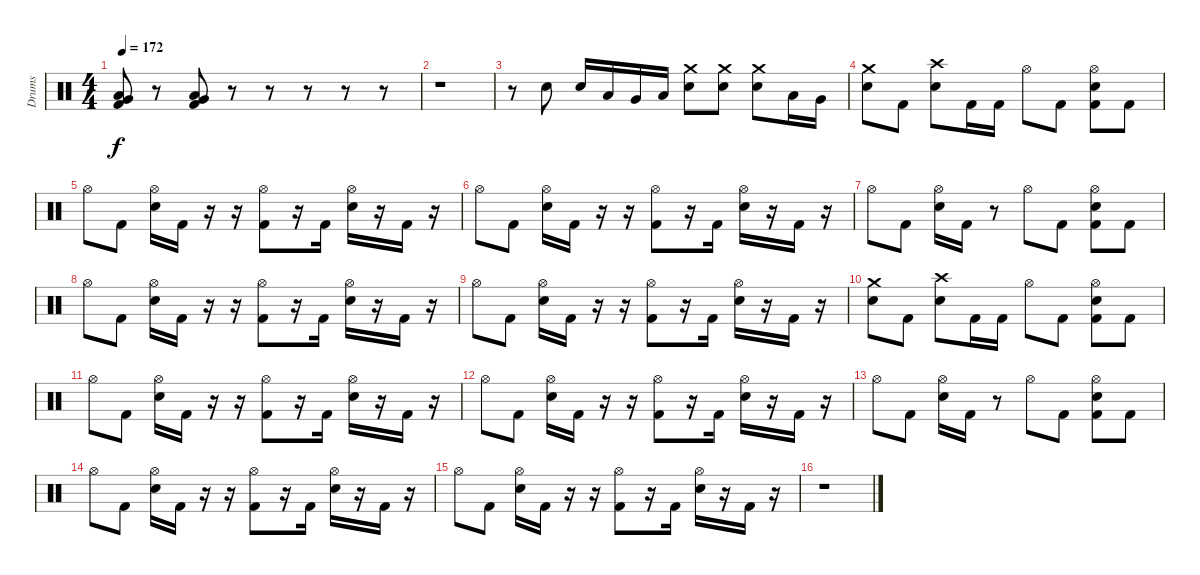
\track ("Drums" "Drums") {instrument percussion}
\staff {score}
\articulation defaults
\ts (4 4)
\tempo 172
\clef neutral
\ks c
("Low Floor Tom (hit)" "Very Low Tom (hit)" "Kick (hit) 2").8{dy f} r.8 ("Low Floor Tom (hit)" "Very Low Tom (hit)" "Kick (hit) 2").8 r.8 r.8 r.8 r.8 r.8 |
r.1 |
r.8 "Electric Snare (hit)".8 "Electric Snare (hit)".16 "Low Tom (hit)".16 "Very Low Tom (hit)".16 "Low Floor Tom (hit)".16 ("Crash medium (hit)" "Electric Snare (hit)").8 ("Crash medium (hit)" "Electric Snare (hit)").8 ("Crash medium (hit)" "Electric Snare (hit)").8 "Low Tom (hit)".16 "Very Low Tom (hit)".16 |
("Crash medium (hit)" "Electric Snare (hit)").8 "Kick (hit) 2".8 ("Crash high (hit)" "Electric Snare (hit)").8 "Kick (hit) 2".16 "Kick (hit) 2".16 "Hi-Hat (open)".8 "Kick (hit) 2".8 ("Hi-Hat (open)" "Electric Snare (hit)" "Kick (hit) 2").8 "Kick (hit) 2".8 |
"Hi-Hat (open)".8 "Kick (hit) 2".8 ("Hi-Hat (open)" "Electric Snare (hit)").16 "Kick (hit) 2".16 r.16 r.16 ("Hi-Hat (open)" "Kick (hit) 2").8 r.16 "Kick (hit) 2".16 ("Hi-Hat (open)" "Electric Snare (hit)").16 r.16 "Kick (hit) 2".16 r.16 |
"Hi-Hat (open)".8 "Kick (hit) 2".8 ("Hi-Hat (open)" "Electric Snare (hit)").16 "Kick (hit) 2".16 r.16 r.16 ("Hi-Hat (open)" "Kick (hit) 2").8 r.16 "Kick (hit) 2".16 ("Hi-Hat (open)" "Electric Snare (hit)").16 r.16 "Kick (hit) 2".16 r.16 |
"Hi-Hat (open)".8 "Kick (hit) 2".8 ("Hi-Hat (open)" "Electric Snare (hit)").16 "Kick (hit) 2".16 r.8 "Hi-Hat (open)".8 "Kick (hit) 2".8 ("Hi-Hat (open)" "Electric Snare (hit)" "Kick (hit) 2").8 "Kick (hit) 2".8 |
"Hi-Hat (open)".8 "Kick (hit) 2".8 ("Hi-Hat (open)" "Electric Snare (hit)").16 "Kick (hit) 2".16 r.16 r.16 ("Hi-Hat (open)" "Kick (hit) 2").8 r.16 "Kick (hit) 2".16 ("Hi-Hat (open)" "Electric Snare (hit)").16 r.16 "Kick (hit) 2".16 r.16 |
"Hi-Hat (open)".8 "Kick (hit) 2".8 ("Hi-Hat (open)" "Electric Snare (hit)").16 "Kick (hit) 2".16 r.16 r.16 ("Hi-Hat (open)" "Kick (hit) 2").8 r.16 "Kick (hit) 2".16 ("Hi-Hat (open)" "Electric Snare (hit)").16 r.16 "Kick (hit) 2".16 r.16 |
("Crash medium (hit)" "Electric Snare (hit)").8 "Kick (hit) 2".8 ("Crash high (hit)" "Electric Snare (hit)").8 "Kick (hit) 2".16 "Kick (hit) 2".16 "Hi-Hat (open)".8 "Kick (hit) 2".8 ("Hi-Hat (open)" "Electric Snare (hit)" "Kick (hit) 2").8 "Kick (hit) 2".8 |
"Hi-Hat (open)".8 "Kick (hit) 2".8 ("Hi-Hat (open)" "Electric Snare (hit)").16 "Kick (hit) 2".16 r.16 r.16 ("Hi-Hat (open)" "Kick (hit) 2").8 r.16 "Kick (hit) 2".16 ("Hi-Hat (open)" "Electric Snare (hit)").16 r.16 "Kick (hit) 2".16 r.16 |
"Hi-Hat (open)".8 "Kick (hit) 2".8 ("Hi-Hat (open)" "Electric Snare (hit)").16 "Kick (hit) 2".16 r.16 r.16 ("Hi-Hat (open)" "Kick (hit) 2").8 r.16 "Kick (hit) 2".16 ("Hi-Hat (open)" "Electric Snare (hit)").16 r.16 "Kick (hit) 2".16 r.16 |
"Hi-Hat (open)".8 "Kick (hit) 2".8 ("Hi-Hat (open)" "Electric Snare (hit)").16 "Kick (hit) 2".16 r.8 "Hi-Hat (open)".8 "Kick (hit) 2".8 ("Hi-Hat (open)" "Electric Snare (hit)" "Kick (hit) 2").8 "Kick (hit) 2".8 |
"Hi-Hat (open)".8 "Kick (hit) 2".8 ("Hi-Hat (open)" "Electric Snare (hit)").16 "Kick (hit) 2".16 r.16 r.16 ("Hi-Hat (open)" "Kick (hit) 2").8 r.16 "Kick (hit) 2".16 ("Hi-Hat (open)" "Electric Snare (hit)").16 r.16 "Kick (hit) 2".16 r.16 |
"Hi-Hat (open)".8 "Kick (hit) 2".8 ("Hi-Hat (open)" "Electric Snare (hit)").16 "Kick (hit) 2".16 r.16 r.16 ("Hi-Hat (open)" "Kick (hit) 2").8 r.16 "Kick (hit) 2".16 ("Hi-Hat (open)" "Electric Snare (hit)").16 r.16 "Kick (hit) 2".16 r.16 |
r.1
